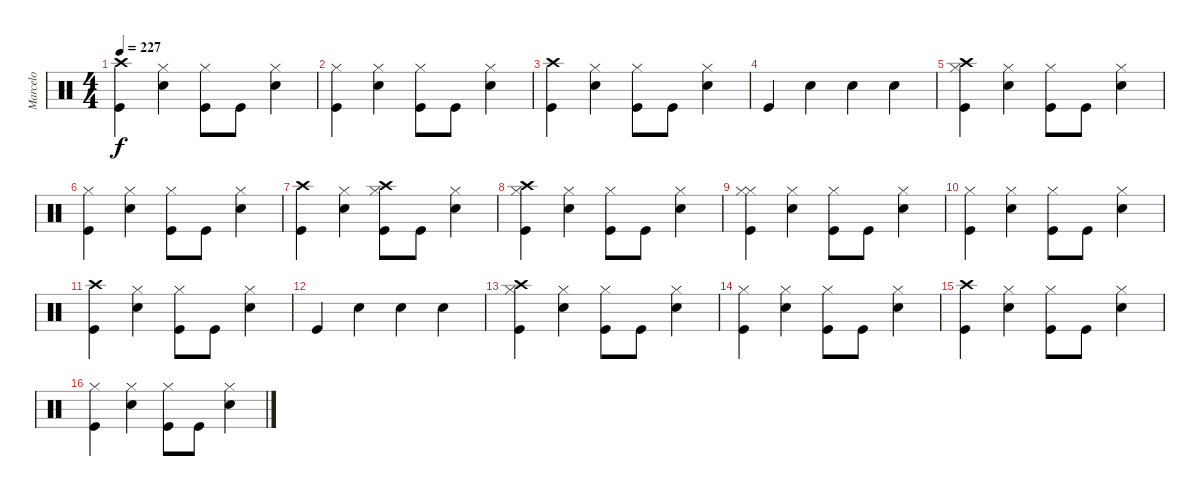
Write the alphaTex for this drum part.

\track ("Marcelo" "Marcelo") {instrument percussion}
\staff {score}
\articulation defaults
\ts (4 4)
\tempo 227
\clef neutral
\ks c
("Crash high (hit)" "Kick (hit)").4{dy f} ("Hi-Hat (closed)" "Snare (hit) 2").4 ("Hi-Hat (closed)" "Kick (hit)").8 "Kick (hit)".8 ("Hi-Hat (closed)" "Snare (hit) 2").4 |
("Hi-Hat (closed)" "Kick (hit)").4 ("Hi-Hat (closed)" "Snare (hit) 2").4 ("Hi-Hat (closed)" "Kick (hit)").8 "Kick (hit)".8 ("Hi-Hat (closed)" "Snare (hit) 2").4 |
("Crash high (hit)" "Kick (hit)").4 ("Hi-Hat (closed)" "Snare (hit) 2").4 ("Hi-Hat (closed)" "Kick (hit)").8 "Kick (hit)".8 ("Hi-Hat (closed)" "Snare (hit) 2").4 |
"Kick (hit)".4 "Snare (hit) 2".4 "Snare (hit) 2".4 "Snare (hit) 2".4 |
("Crash high (hit)" "Hi-Hat (closed)" "Kick (hit)").4 ("Hi-Hat (closed)" "Snare (hit) 2").4 ("Hi-Hat (closed)" "Kick (hit)").8 "Kick (hit)".8 ("Hi-Hat (closed)" "Snare (hit) 2").4 |
("Hi-Hat (closed)" "Kick (hit)").4 ("Hi-Hat (closed)" "Snare (hit) 2").4 ("Hi-Hat (closed)" "Kick (hit)").8 "Kick (hit)".8 ("Hi-Hat (closed)" "Snare (hit) 2").4 |
("Crash high (hit)" "Kick (hit)").4 ("Hi-Hat (closed)" "Snare (hit) 2").4 ("Crash high (hit)" "Hi-Hat (closed)" "Kick (hit)").8 "Kick (hit)".8 ("Hi-Hat (closed)" "Snare (hit) 2").4 |
("Crash high (hit)" "Hi-Hat (closed)" "Kick (hit)").4 ("Hi-Hat (closed)" "Snare (hit) 2").4 ("Hi-Hat (closed)" "Kick (hit)").8 "Kick (hit)".8 ("Hi-Hat (closed)" "Snare (hit) 2").4 |
("Hi-Hat (closed)" "Hi-Hat (closed)" "Kick (hit)").4 ("Hi-Hat (closed)" "Snare (hit) 2").4 ("Hi-Hat (closed)" "Kick (hit)").8 "Kick (hit)".8 ("Hi-Hat (closed)" "Snare (hit) 2").4 |
("Hi-Hat (closed)" "Kick (hit)").4 ("Hi-Hat (closed)" "Snare (hit) 2").4 ("Hi-Hat (closed)" "Kick (hit)").8 "Kick (hit)".8 ("Hi-Hat (closed)" "Snare (hit) 2").4 |
("Crash high (hit)" "Kick (hit)").4 ("Hi-Hat (closed)" "Snare (hit) 2").4 ("Hi-Hat (closed)" "Kick (hit)").8 "Kick (hit)".8 ("Hi-Hat (closed)" "Snare (hit) 2").4 |
"Kick (hit)".4 "Snare (hit) 2".4 "Snare (hit) 2".4 "Snare (hit) 2".4 |
("Crash high (hit)" "Hi-Hat (closed)" "Kick (hit)").4 ("Hi-Hat (closed)" "Snare (hit) 2").4 ("Hi-Hat (closed)" "Kick (hit)").8 "Kick (hit)".8 ("Hi-Hat (closed)" "Snare (hit) 2").4 |
("Hi-Hat (closed)" "Kick (hit)").4 ("Hi-Hat (closed)" "Snare (hit) 2").4 ("Hi-Hat (closed)" "Kick (hit)").8 "Kick (hit)".8 ("Hi-Hat (closed)" "Snare (hit) 2").4 |
("Crash high (hit)" "Kick (hit)").4 ("Hi-Hat (closed)" "Snare (hit) 2").4 ("Hi-Hat (closed)" "Kick (hit)").8 "Kick (hit)".8 ("Hi-Hat (closed)" "Snare (hit) 2").4 |
("Hi-Hat (closed)" "Kick (hit)").4 ("Hi-Hat (closed)" "Snare (hit) 2").4 ("Hi-Hat (closed)" "Kick (hit)").8 "Kick (hit)".8 ("Hi-Hat (closed)" "Snare (hit) 2").4
